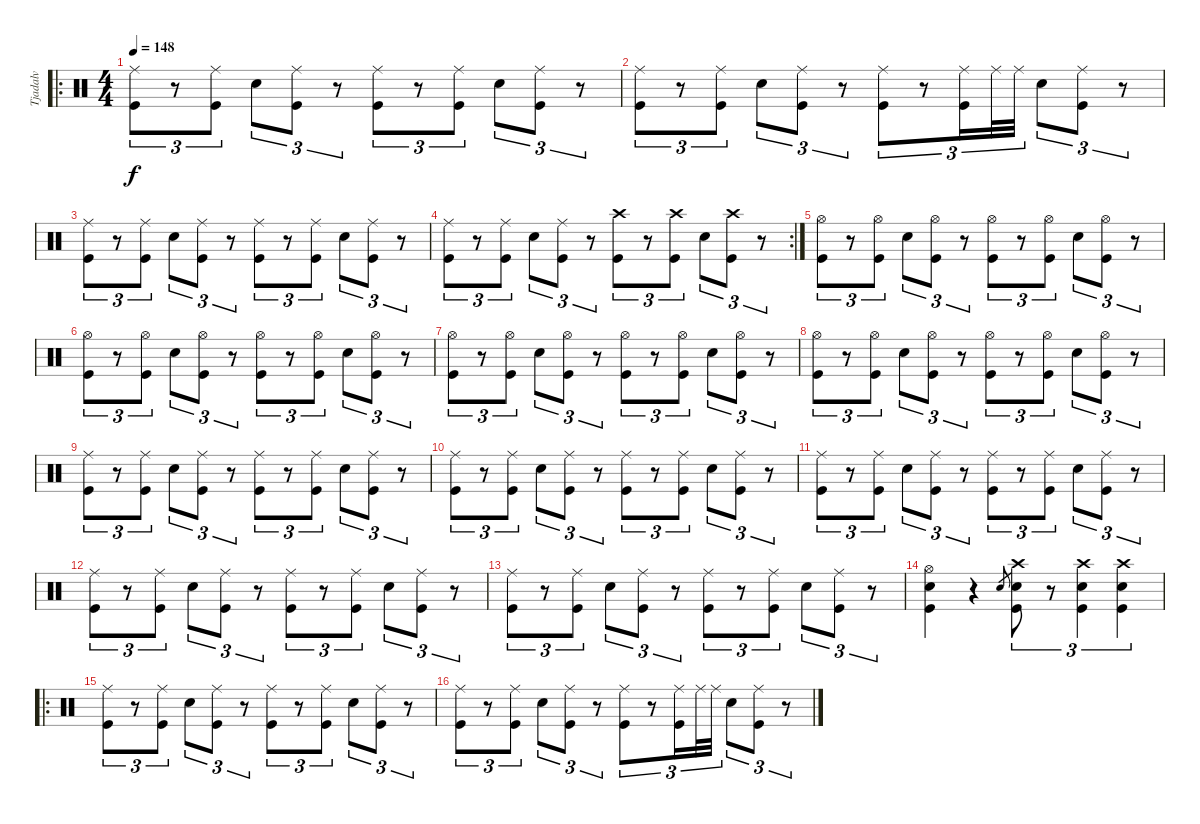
\track ("Tjadalv    ( Drum )" "Tjadalv   ") {instrument percussion}
\staff {score}
\articulation defaults
\ro
\ts (4 4)
\tempo 148
\clef neutral
\ks c
("Ride (middle)" "Kick (hit)").8{tu (3 2) dy f} r.8{tu (3 2)} ("Ride (middle)" "Kick (hit)").8{tu (3 2)} "Electric Snare (hit)".8{tu (3 2)} ("Ride (middle)" "Kick (hit)").8{tu (3 2)} r.8{tu (3 2)} ("Ride (middle)" "Kick (hit)").8{tu (3 2)} r.8{tu (3 2)} ("Ride (middle)" "Kick (hit)").8{tu (3 2)} "Electric Snare (hit)".8{tu (3 2)} ("Ride (middle)" "Kick (hit)").8{tu (3 2)} r.8{tu (3 2)} |
("Ride (middle)" "Kick (hit)").8{tu (3 2)} r.8{tu (3 2)} ("Ride (middle)" "Kick (hit)").8{tu (3 2)} "Electric Snare (hit)".8{tu (3 2)} ("Ride (middle)" "Kick (hit)").8{tu (3 2)} r.8{tu (3 2)} ("Ride (middle)" "Kick (hit)").8{tu (3 2)} r.8{tu (3 2)} ("Ride (middle)" "Kick (hit)").16{tu (3 2)} "Ride (middle)".32{tu (3 2)} "Ride (middle)".32{tu (3 2)} "Electric Snare (hit)".8{tu (3 2)} ("Ride (middle)" "Kick (hit)").8{tu (3 2)} r.8{tu (3 2)} |
("Ride (middle)" "Kick (hit)").8{tu (3 2)} r.8{tu (3 2)} ("Ride (middle)" "Kick (hit)").8{tu (3 2)} "Electric Snare (hit)".8{tu (3 2)} ("Ride (middle)" "Kick (hit)").8{tu (3 2)} r.8{tu (3 2)} ("Ride (middle)" "Kick (hit)").8{tu (3 2)} r.8{tu (3 2)} ("Ride (middle)" "Kick (hit)").8{tu (3 2)} "Electric Snare (hit)".8{tu (3 2)} ("Ride (middle)" "Kick (hit)").8{tu (3 2)} r.8{tu (3 2)} |
\rc 2
("Ride (middle)" "Kick (hit)").8{tu (3 2)} r.8{tu (3 2)} ("Ride (middle)" "Kick (hit)").8{tu (3 2)} "Electric Snare (hit)".8{tu (3 2)} ("Ride (middle)" "Kick (hit)").8{tu (3 2)} r.8{tu (3 2)} ("Crash high (hit)" "Kick (hit)").8{tu (3 2)} r.8{tu (3 2)} ("Crash high (hit)" "Kick (hit)").8{tu (3 2)} "Electric Snare (hit)".8{tu (3 2)} ("Crash high (hit)" "Kick (hit)").8{tu (3 2)} r.8{tu (3 2)} |
("Hi-Hat (open)" "Kick (hit)").8{tu (3 2)} r.8{tu (3 2)} ("Hi-Hat (open)" "Kick (hit)").8{tu (3 2)} "Electric Snare (hit)".8{tu (3 2)} ("Hi-Hat (open)" "Kick (hit)").8{tu (3 2)} r.8{tu (3 2)} ("Hi-Hat (open)" "Kick (hit)").8{tu (3 2)} r.8{tu (3 2)} ("Hi-Hat (open)" "Kick (hit)").8{tu (3 2)} "Electric Snare (hit)".8{tu (3 2)} ("Hi-Hat (open)" "Kick (hit)").8{tu (3 2)} r.8{tu (3 2)} |
("Hi-Hat (open)" "Kick (hit)").8{tu (3 2)} r.8{tu (3 2)} ("Hi-Hat (open)" "Kick (hit)").8{tu (3 2)} "Electric Snare (hit)".8{tu (3 2)} ("Hi-Hat (open)" "Kick (hit)").8{tu (3 2)} r.8{tu (3 2)} ("Hi-Hat (open)" "Kick (hit)").8{tu (3 2)} r.8{tu (3 2)} ("Hi-Hat (open)" "Kick (hit)").8{tu (3 2)} "Electric Snare (hit)".8{tu (3 2)} ("Hi-Hat (open)" "Kick (hit)").8{tu (3 2)} r.8{tu (3 2)} |
("Hi-Hat (open)" "Kick (hit)").8{tu (3 2)} r.8{tu (3 2)} ("Hi-Hat (open)" "Kick (hit)").8{tu (3 2)} "Electric Snare (hit)".8{tu (3 2)} ("Hi-Hat (open)" "Kick (hit)").8{tu (3 2)} r.8{tu (3 2)} ("Hi-Hat (open)" "Kick (hit)").8{tu (3 2)} r.8{tu (3 2)} ("Hi-Hat (open)" "Kick (hit)").8{tu (3 2)} "Electric Snare (hit)".8{tu (3 2)} ("Hi-Hat (open)" "Kick (hit)").8{tu (3 2)} r.8{tu (3 2)} |
("Hi-Hat (open)" "Kick (hit)").8{tu (3 2)} r.8{tu (3 2)} ("Hi-Hat (open)" "Kick (hit)").8{tu (3 2)} "Electric Snare (hit)".8{tu (3 2)} ("Hi-Hat (open)" "Kick (hit)").8{tu (3 2)} r.8{tu (3 2)} ("Hi-Hat (open)" "Kick (hit)").8{tu (3 2)} r.8{tu (3 2)} ("Hi-Hat (open)" "Kick (hit)").8{tu (3 2)} "Electric Snare (hit)".8{tu (3 2)} ("Hi-Hat (open)" "Kick (hit)").8{tu (3 2)} r.8{tu (3 2)} |
("Ride (middle)" "Kick (hit)").8{tu (3 2)} r.8{tu (3 2)} ("Ride (middle)" "Kick (hit)").8{tu (3 2)} "Electric Snare (hit)".8{tu (3 2)} ("Ride (middle)" "Kick (hit)").8{tu (3 2)} r.8{tu (3 2)} ("Ride (middle)" "Kick (hit)").8{tu (3 2)} r.8{tu (3 2)} ("Ride (middle)" "Kick (hit)").8{tu (3 2)} "Electric Snare (hit)".8{tu (3 2)} ("Ride (middle)" "Kick (hit)").8{tu (3 2)} r.8{tu (3 2)} |
("Ride (middle)" "Kick (hit)").8{tu (3 2)} r.8{tu (3 2)} ("Ride (middle)" "Kick (hit)").8{tu (3 2)} "Electric Snare (hit)".8{tu (3 2)} ("Ride (middle)" "Kick (hit)").8{tu (3 2)} r.8{tu (3 2)} ("Ride (middle)" "Kick (hit)").8{tu (3 2)} r.8{tu (3 2)} ("Ride (middle)" "Kick (hit)").8{tu (3 2)} "Electric Snare (hit)".8{tu (3 2)} ("Ride (middle)" "Kick (hit)").8{tu (3 2)} r.8{tu (3 2)} |
("Ride (middle)" "Kick (hit)").8{tu (3 2)} r.8{tu (3 2)} ("Ride (middle)" "Kick (hit)").8{tu (3 2)} "Electric Snare (hit)".8{tu (3 2)} ("Ride (middle)" "Kick (hit)").8{tu (3 2)} r.8{tu (3 2)} ("Ride (middle)" "Kick (hit)").8{tu (3 2)} r.8{tu (3 2)} ("Ride (middle)" "Kick (hit)").8{tu (3 2)} "Electric Snare (hit)".8{tu (3 2)} ("Ride (middle)" "Kick (hit)").8{tu (3 2)} r.8{tu (3 2)} |
("Ride (middle)" "Kick (hit)").8{tu (3 2)} r.8{tu (3 2)} ("Ride (middle)" "Kick (hit)").8{tu (3 2)} "Electric Snare (hit)".8{tu (3 2)} ("Ride (middle)" "Kick (hit)").8{tu (3 2)} r.8{tu (3 2)} ("Ride (middle)" "Kick (hit)").8{tu (3 2)} r.8{tu (3 2)} ("Ride (middle)" "Kick (hit)").8{tu (3 2)} "Electric Snare (hit)".8{tu (3 2)} ("Ride (middle)" "Kick (hit)").8{tu (3 2)} r.8{tu (3 2)} |
("Ride (middle)" "Kick (hit)").8{tu (3 2)} r.8{tu (3 2)} ("Ride (middle)" "Kick (hit)").8{tu (3 2)} "Electric Snare (hit)".8{tu (3 2)} ("Ride (middle)" "Kick (hit)").8{tu (3 2)} r.8{tu (3 2)} ("Ride (middle)" "Kick (hit)").8{tu (3 2)} r.8{tu (3 2)} ("Ride (middle)" "Kick (hit)").8{tu (3 2)} "Electric Snare (hit)".8{tu (3 2)} ("Ride (middle)" "Kick (hit)").8{tu (3 2)} r.8{tu (3 2)} |
("Hi-Hat (open)" "Electric Snare (hit)" "Kick (hit)").4 r.4 "Electric Snare (hit)".8{gr} ("Crash high (hit)" "Electric Snare (hit)" "Kick (hit)").8{tu (3 2)} r.8{tu (3 2)} ("Crash high (hit)" "Electric Snare (hit)" "Kick (hit)").4{tu (3 2)} ("Crash high (hit)" "Electric Snare (hit)" "Kick (hit)").4{tu (3 2)} |
\ro
("Ride (middle)" "Kick (hit)").8{tu (3 2)} r.8{tu (3 2)} ("Ride (middle)" "Kick (hit)").8{tu (3 2)} "Electric Snare (hit)".8{tu (3 2)} ("Ride (middle)" "Kick (hit)").8{tu (3 2)} r.8{tu (3 2)} ("Ride (middle)" "Kick (hit)").8{tu (3 2)} r.8{tu (3 2)} ("Ride (middle)" "Kick (hit)").8{tu (3 2)} "Electric Snare (hit)".8{tu (3 2)} ("Ride (middle)" "Kick (hit)").8{tu (3 2)} r.8{tu (3 2)} |
("Ride (middle)" "Kick (hit)").8{tu (3 2)} r.8{tu (3 2)} ("Ride (middle)" "Kick (hit)").8{tu (3 2)} "Electric Snare (hit)".8{tu (3 2)} ("Ride (middle)" "Kick (hit)").8{tu (3 2)} r.8{tu (3 2)} ("Ride (middle)" "Kick (hit)").8{tu (3 2)} r.8{tu (3 2)} ("Ride (middle)" "Kick (hit)").16{tu (3 2)} "Ride (middle)".32{tu (3 2)} "Ride (middle)".32{tu (3 2)} "Electric Snare (hit)".8{tu (3 2)} ("Ride (middle)" "Kick (hit)").8{tu (3 2)} r.8{tu (3 2)}
